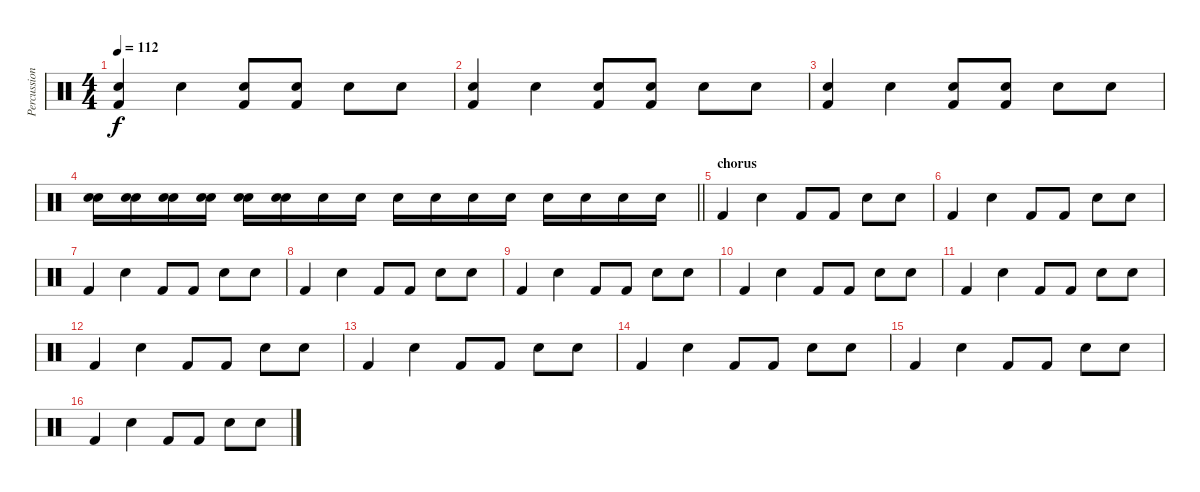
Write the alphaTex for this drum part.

\track ("Percussions" "Percussion") {instrument percussion}
\staff {score}
\articulation defaults
\ts (4 4)
\tempo 112
\clef neutral
\ks c
("Snare (hit)" "Kick (hit) 2").4{dy f} "Electric Snare (hit)".4 ("Snare (hit)" "Kick (hit) 2").8 ("Snare (hit)" "Kick (hit) 2").8 "Electric Snare (hit)".8 "Electric Snare (hit)".8 |
("Snare (hit)" "Kick (hit) 2").4 "Electric Snare (hit)".4 ("Snare (hit)" "Kick (hit) 2").8 ("Snare (hit)" "Kick (hit) 2").8 "Electric Snare (hit)".8 "Electric Snare (hit)".8 |
("Snare (hit)" "Kick (hit) 2").4 "Electric Snare (hit)".4 ("Snare (hit)" "Kick (hit) 2").8 ("Snare (hit)" "Kick (hit) 2").8 "Electric Snare (hit)".8 "Electric Snare (hit)".8 |
\barLineRight lightlight
("Snare (hit)" "Electric Snare (hit)").16 ("Electric Snare (hit)" "Electric Snare (hit)").16 ("Snare (hit)" "Electric Snare (hit)").16 ("Snare (hit)" "Electric Snare (hit)").16 ("Electric Snare (hit)" "Electric Snare (hit)").16 ("Electric Snare (hit)" "Electric Snare (hit)").16 "Electric Snare (hit)".16 "Electric Snare (hit)".16 "Electric Snare (hit)".16 "Electric Snare (hit)".16 "Electric Snare (hit)".16 "Electric Snare (hit)".16 "Electric Snare (hit)".16 "Electric Snare (hit)".16 "Electric Snare (hit)".16 "Electric Snare (hit)".16 |
\section ("" "chorus")
"Kick (hit) 2".4 "Electric Snare (hit)".4 "Kick (hit) 2".8 "Kick (hit) 2".8 "Electric Snare (hit)".8 "Electric Snare (hit)".8 |
"Kick (hit) 2".4 "Electric Snare (hit)".4 "Kick (hit) 2".8 "Kick (hit) 2".8 "Electric Snare (hit)".8 "Electric Snare (hit)".8 |
"Kick (hit) 2".4 "Electric Snare (hit)".4 "Kick (hit) 2".8 "Kick (hit) 2".8 "Electric Snare (hit)".8 "Electric Snare (hit)".8 |
"Kick (hit) 2".4 "Electric Snare (hit)".4 "Kick (hit) 2".8 "Kick (hit) 2".8 "Electric Snare (hit)".8 "Electric Snare (hit)".8 |
"Kick (hit) 2".4 "Electric Snare (hit)".4 "Kick (hit) 2".8 "Kick (hit) 2".8 "Electric Snare (hit)".8 "Electric Snare (hit)".8 |
"Kick (hit) 2".4 "Electric Snare (hit)".4 "Kick (hit) 2".8 "Kick (hit) 2".8 "Electric Snare (hit)".8 "Electric Snare (hit)".8 |
"Kick (hit) 2".4 "Electric Snare (hit)".4 "Kick (hit) 2".8 "Kick (hit) 2".8 "Electric Snare (hit)".8 "Electric Snare (hit)".8 |
"Kick (hit) 2".4 "Electric Snare (hit)".4 "Kick (hit) 2".8 "Kick (hit) 2".8 "Electric Snare (hit)".8 "Electric Snare (hit)".8 |
"Kick (hit) 2".4 "Electric Snare (hit)".4 "Kick (hit) 2".8 "Kick (hit) 2".8 "Electric Snare (hit)".8 "Electric Snare (hit)".8 |
"Kick (hit) 2".4 "Electric Snare (hit)".4 "Kick (hit) 2".8 "Kick (hit) 2".8 "Electric Snare (hit)".8 "Electric Snare (hit)".8 |
"Kick (hit) 2".4 "Electric Snare (hit)".4 "Kick (hit) 2".8 "Kick (hit) 2".8 "Electric Snare (hit)".8 "Electric Snare (hit)".8 |
"Kick (hit) 2".4 "Electric Snare (hit)".4 "Kick (hit) 2".8 "Kick (hit) 2".8 "Electric Snare (hit)".8 "Electric Snare (hit)".8
